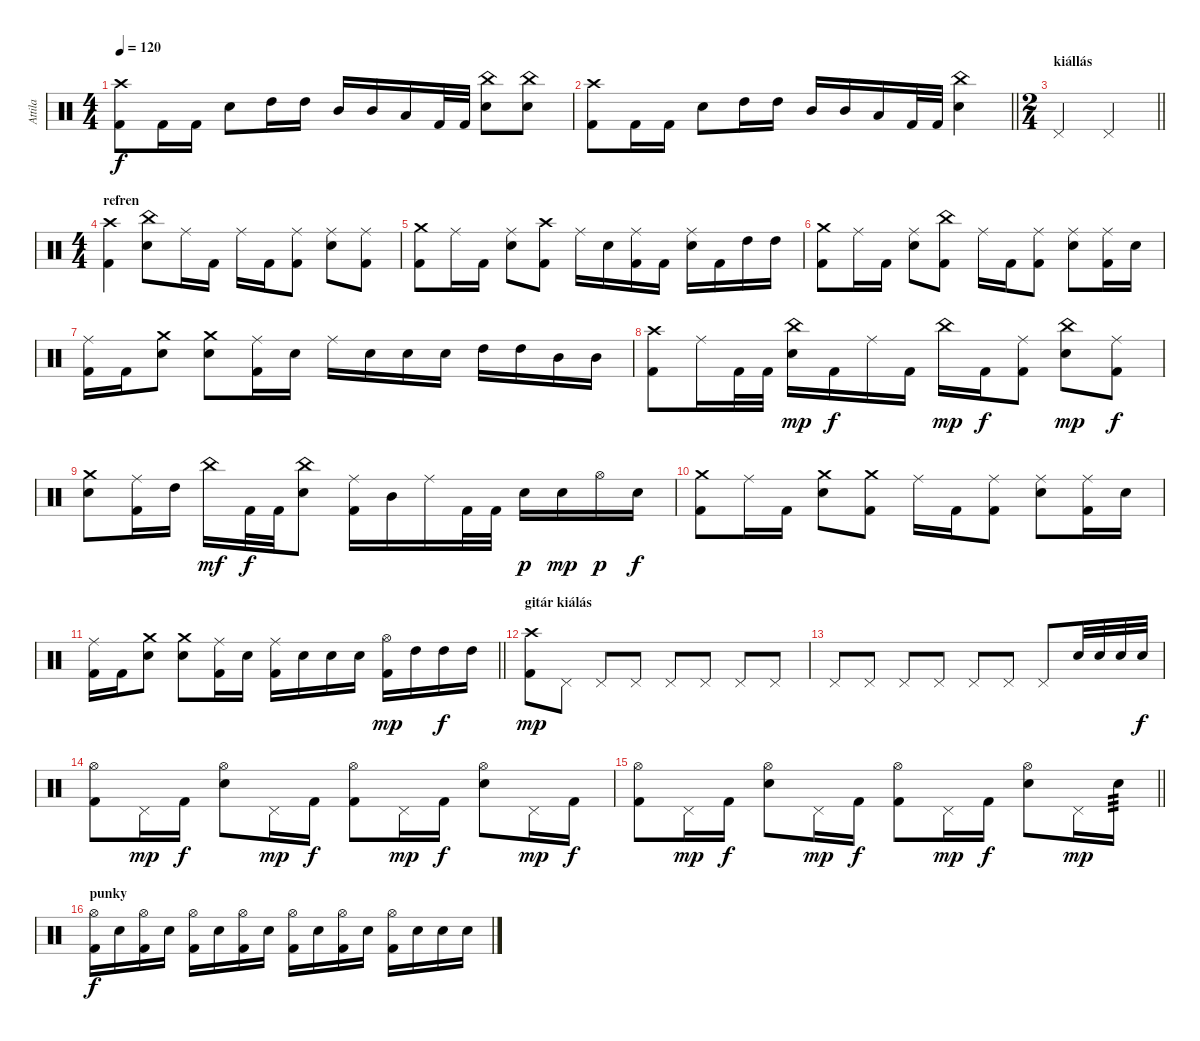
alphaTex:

\track ("Attila" "Attila") {instrument percussion}
\staff {score}
\articulation defaults
\ts (4 4)
\tempo 120
\clef neutral
\ks c
("Crash high (hit)" "Kick (hit) 2").8{dy f} "Kick (hit) 2".16 "Kick (hit) 2".16 "Electric Snare (hit)".8 "High Tom (hit)".16 "High Tom (hit)".16 "Mid Tom (hit)".16 "Mid Tom (hit)".16 "Low Tom (hit)".16 "Kick (hit) 2".32 "Kick (hit) 2".32 ("China (hit)" "Electric Snare (hit)").8 ("China (hit)" "Electric Snare (hit)").8 |
\barLineRight lightlight
("Crash high (hit)" "Kick (hit) 2").8 "Kick (hit) 2".16 "Kick (hit) 2".16 "Electric Snare (hit)".8 "High Tom (hit)".16 "High Tom (hit)".16 "Mid Tom (hit)".16 "Mid Tom (hit)".16 "Low Tom (hit)".16 "Kick (hit) 2".32 "Kick (hit) 2".32 ("China (hit)" "Electric Snare (hit)").4 |
\ts (2 4)
\section ("" "kiállás")
\barLineRight lightlight "Pedal Hi-Hat (hit)".4 "Pedal Hi-Hat (hit)".4
|
\ts (4 4)
\section ("" "refren")
("Crash high (hit)" "Kick (hit) 2").4 ("China (hit)" "Electric Snare (hit)").8 "Ride (middle)".16 "Kick (hit) 2".16 "Ride (middle)".16 "Kick (hit) 2".16 ("Ride (middle)" "Kick (hit) 2").8 ("Ride (middle)" "Electric Snare (hit)").8 ("Ride (middle)" "Kick (hit) 2").8 |
("Crash medium (hit)" "Kick (hit) 2").8 "Ride (middle)".16 "Kick (hit) 2".16 ("Ride (middle)" "Electric Snare (hit)").8 ("Crash high (hit)" "Kick (hit) 2").8 "Ride (middle)".16 "Electric Snare (hit)".16 ("Ride (middle)" "Kick (hit) 2").16 "Kick (hit) 2".16 ("Ride (middle)" "Electric Snare (hit)").16 "Kick (hit) 2".16 "High Tom (hit)".16 "High Tom (hit)".16 |
("Crash medium (hit)" "Kick (hit) 2").8 "Ride (middle)".16 "Kick (hit) 2".16 ("Ride (middle)" "Electric Snare (hit)").8 ("China (hit)" "Kick (hit) 2").8 "Ride (middle)".16 "Kick (hit) 2".16 ("Ride (middle)" "Kick (hit) 2").8 ("Ride (middle)" "Electric Snare (hit)").8 ("Ride (middle)" "Kick (hit) 2").16 "Electric Snare (hit)".16 |
("Ride (middle)" "Kick (hit) 2").16 "Kick (hit) 2".16 ("Crash medium (hit)" "Electric Snare (hit)").8 ("Crash medium (hit)" "Electric Snare (hit)").8 ("Ride (middle)" "Kick (hit) 2").16 "Electric Snare (hit)".16 "Ride (middle)".16 "Electric Snare (hit)".16 "Electric Snare (hit)".16 "Electric Snare (hit)".16 "High Tom (hit)".16 "High Tom (hit)".16 "Mid Tom (hit)".16 "Mid Tom (hit)".16 |
("Crash high (hit)" "Kick (hit) 2").8 "Ride (middle)".16 "Kick (hit) 2".32 "Kick (hit) 2".32 ("China (hit)" "Electric Snare (hit)").16{dy mp} "Kick (hit) 2".16{dy f} "Ride (middle)".16 "Kick (hit) 2".16 "China (hit)".16{dy mp} "Kick (hit) 2".16{dy f} ("Ride (middle)" "Kick (hit) 2").8 ("China (hit)" "Electric Snare (hit)").8{dy mp} ("Ride (middle)" "Kick (hit) 2").8{dy f} |
("Crash medium (hit)" "Electric Snare (hit)").8 ("Ride (middle)" "Kick (hit) 2").16 "High Tom (hit)".16 "China (hit)".16{dy mf} "Kick (hit) 2".32{dy f} "Kick (hit) 2".32 ("China (hit)" "Electric Snare (hit)").8 ("Ride (middle)" "Kick (hit) 2").16 "Mid Tom (hit)".16 "Ride (middle)".16 "Kick (hit) 2".32 "Kick (hit) 2".32 "Electric Snare (hit)".16{dy p} "Electric Snare (hit)".16{dy mp} "Hi-Hat (open)".16{dy p} "Electric Snare (hit)".16{dy f} |
("Crash medium (hit)" "Kick (hit) 2").8 "Ride (middle)".16 "Kick (hit) 2".16 ("Crash medium (hit)" "Electric Snare (hit)").8 ("Crash medium (hit)" "Kick (hit) 2").8 "Ride (middle)".16 "Kick (hit) 2".16 ("Ride (middle)" "Kick (hit) 2").8 ("Ride (middle)" "Electric Snare (hit)").8 ("Ride (middle)" "Kick (hit) 2").16 "Electric Snare (hit)".16 |
\barLineRight lightlight
("Ride (middle)" "Kick (hit) 2").16 "Kick (hit) 2".16 ("Crash medium (hit)" "Electric Snare (hit)").8 ("Crash medium (hit)" "Electric Snare (hit)").8 ("Ride (middle)" "Kick (hit) 2").16 "Electric Snare (hit)".16 ("Ride (middle)" "Kick (hit) 2").16 "Electric Snare (hit)".16 "Electric Snare (hit)".16 "Electric Snare (hit)".16 ("Hi-Hat (open)" "Kick (hit) 2").16{dy mp} "High Tom (hit)".16 "High Tom (hit)".16{dy f} "High Tom (hit)".16 |
\section ("" "gitár kiálás")
("Crash high (hit)" "Kick (hit) 2").8{dy mp} "Pedal Hi-Hat (hit)".8 "Pedal Hi-Hat (hit)".8 "Pedal Hi-Hat (hit)".8 "Pedal Hi-Hat (hit)".8 "Pedal Hi-Hat (hit)".8 "Pedal Hi-Hat (hit)".8 "Pedal Hi-Hat (hit)".8 |
"Pedal Hi-Hat (hit)".8 "Pedal Hi-Hat (hit)".8 "Pedal Hi-Hat (hit)".8 "Pedal Hi-Hat (hit)".8 "Pedal Hi-Hat (hit)".8 "Pedal Hi-Hat (hit)".8 "Pedal Hi-Hat (hit)".8 "Electric Snare (hit)".32 "Electric Snare (hit)".32 "Electric Snare (hit)".32 "Electric Snare (hit)".32{dy f} |
("Hi-Hat (open)" "Kick (hit) 2").8 "Pedal Hi-Hat (hit)".16{dy mp} "Kick (hit) 2".16{dy f} ("Hi-Hat (open)" "Electric Snare (hit)").8 "Pedal Hi-Hat (hit)".16{dy mp} "Kick (hit) 2".16{dy f} ("Hi-Hat (open)" "Kick (hit) 2").8 "Pedal Hi-Hat (hit)".16{dy mp} "Kick (hit) 2".16{dy f} ("Hi-Hat (open)" "Electric Snare (hit)").8 "Pedal Hi-Hat (hit)".16{dy mp} "Kick (hit) 2".16{dy f} |
\barLineRight lightlight
("Hi-Hat (open)" "Kick (hit) 2").8 "Pedal Hi-Hat (hit)".16{dy mp} "Kick (hit) 2".16{dy f} ("Hi-Hat (open)" "Electric Snare (hit)").8 "Pedal Hi-Hat (hit)".16{dy mp} "Kick (hit) 2".16{dy f} ("Hi-Hat (open)" "Kick (hit) 2").8 "Pedal Hi-Hat (hit)".16{dy mp} "Kick (hit) 2".16{dy f} ("Hi-Hat (open)" "Electric Snare (hit)").8 "Pedal Hi-Hat (hit)".16{dy mp} "Electric Snare (hit)".16{tp 3} |
\section ("" "punky")
("Hi-Hat (open)" "Kick (hit) 2").16{dy f} "Electric Snare (hit)".16 ("Hi-Hat (open)" "Kick (hit) 2").16 "Electric Snare (hit)".16 ("Hi-Hat (open)" "Kick (hit) 2").16 "Electric Snare (hit)".16 ("Hi-Hat (open)" "Kick (hit) 2").16 "Electric Snare (hit)".16 ("Hi-Hat (open)" "Kick (hit) 2").16 "Electric Snare (hit)".16 ("Hi-Hat (open)" "Kick (hit) 2").16 "Electric Snare (hit)".16 ("Hi-Hat (open)" "Kick (hit) 2").16 "Electric Snare (hit)".16 "Electric Snare (hit)".16 "Electric Snare (hit)".16
